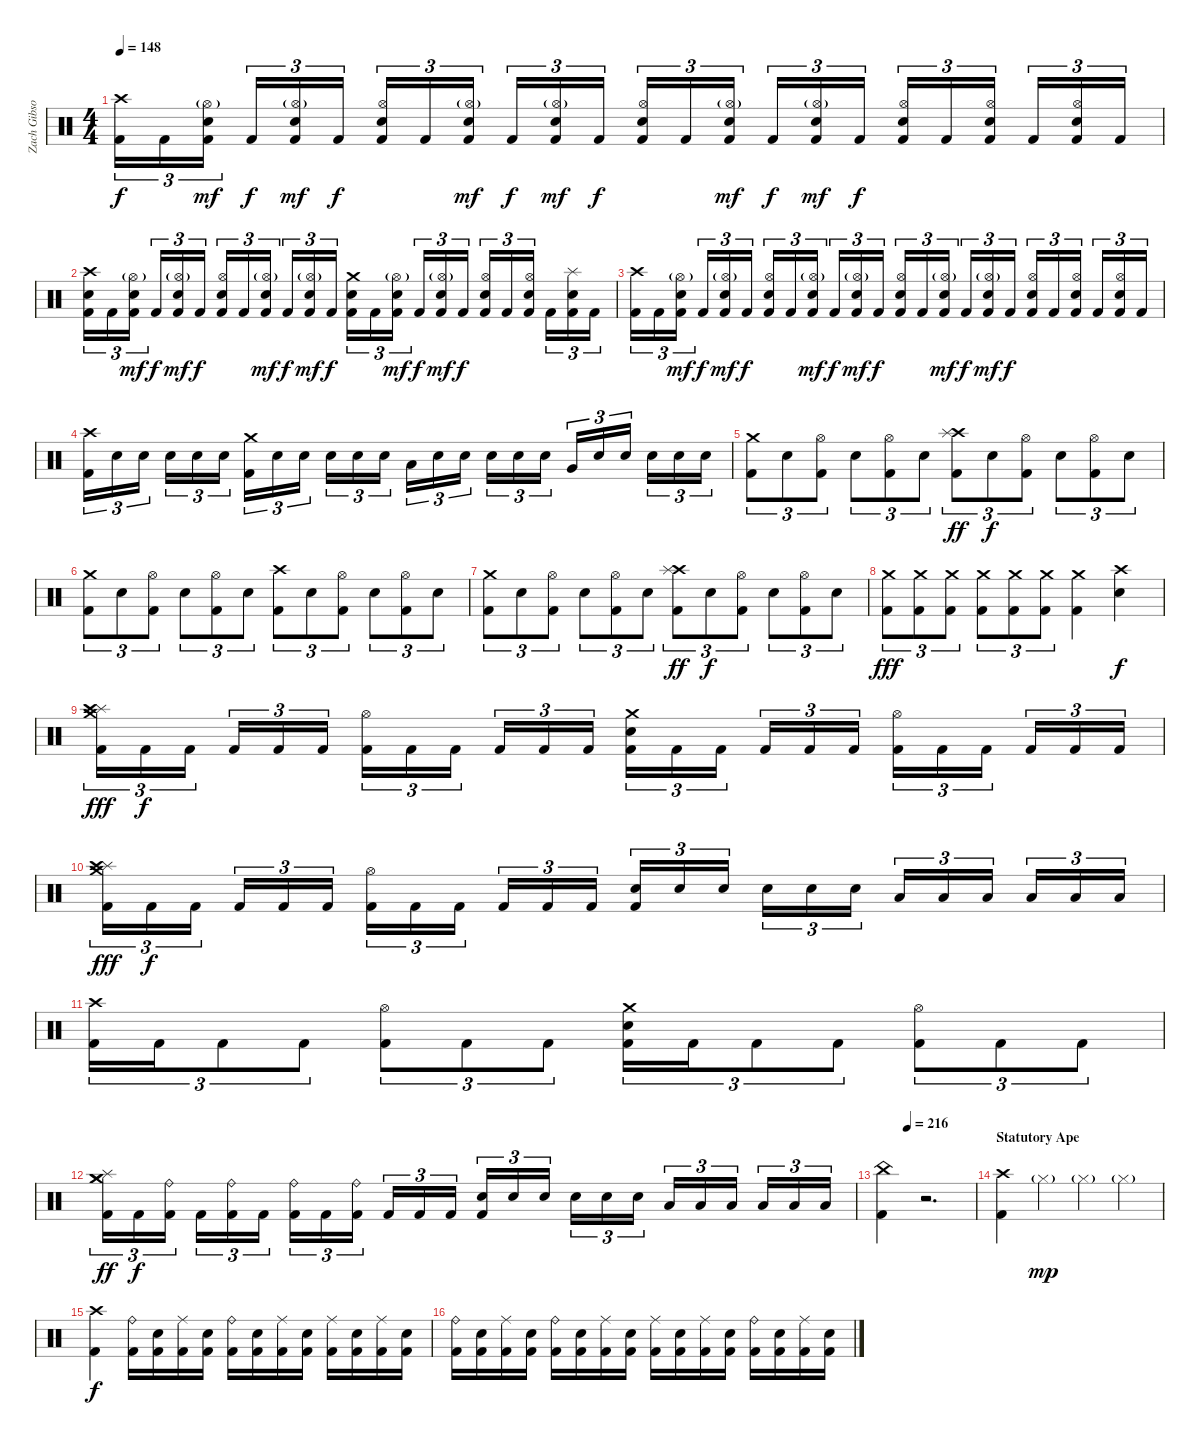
\track ("Zach Gibson (Ex-Drums)" "Zach Gibso") {instrument percussion}
\staff {score}
\articulation defaults
\ts (4 4)
\tempo 148
\clef neutral
\ks c
("Crash high (hit)" "Kick (hit) 2").16{tu (3 2) dy f} "Kick (hit) 2".16{tu (3 2)} ("Hi-Hat (open)"{g} "Snare (hit) 2" "Kick (hit) 2").16{tu (3 2) dy mf} "Kick (hit) 2".16{tu (3 2) dy f} ("Hi-Hat (open)"{g} "Snare (hit) 2" "Kick (hit) 2").16{tu (3 2) dy mf} "Kick (hit) 2".16{tu (3 2) dy f} ("Hi-Hat (open)" "Snare (hit) 2" "Kick (hit) 2").16{tu (3 2)} "Kick (hit) 2".16{tu (3 2)} ("Hi-Hat (open)"{g} "Snare (hit) 2" "Kick (hit) 2").16{tu (3 2) dy mf} "Kick (hit) 2".16{tu (3 2) dy f} ("Hi-Hat (open)"{g} "Snare (hit) 2" "Kick (hit) 2").16{tu (3 2) dy mf} "Kick (hit) 2".16{tu (3 2) dy f} ("Hi-Hat (open)" "Snare (hit) 2" "Kick (hit) 2").16{tu (3 2)} "Kick (hit) 2".16{tu (3 2)} ("Hi-Hat (open)"{g} "Snare (hit) 2" "Kick (hit) 2").16{tu (3 2) dy mf} "Kick (hit) 2".16{tu (3 2) dy f} ("Hi-Hat (open)"{g} "Snare (hit) 2" "Kick (hit) 2").16{tu (3 2) dy mf} "Kick (hit) 2".16{tu (3 2) dy f} ("Hi-Hat (open)" "Snare (hit) 2" "Kick (hit) 2").16{tu (3 2)} "Kick (hit) 2".16{tu (3 2)} ("Hi-Hat (open)" "Snare (hit) 2" "Kick (hit) 2").16{tu (3 2)} "Kick (hit) 2".16{tu (3 2)} ("Hi-Hat (open)" "Snare (hit) 2" "Kick (hit) 2").16{tu (3 2)} "Kick (hit) 2".16{tu (3 2)} |
("Crash high (hit)" "Snare (hit) 2" "Kick (hit) 2").16{tu (3 2)} "Kick (hit) 2".16{tu (3 2)} ("Hi-Hat (open)"{g} "Snare (hit) 2" "Kick (hit) 2").16{tu (3 2) dy mf} "Kick (hit) 2".16{tu (3 2) dy f} ("Hi-Hat (open)"{g} "Snare (hit) 2" "Kick (hit) 2").16{tu (3 2) dy mf} "Kick (hit) 2".16{tu (3 2) dy f} ("Hi-Hat (open)" "Snare (hit) 2" "Kick (hit) 2").16{tu (3 2)} "Kick (hit) 2".16{tu (3 2)} ("Hi-Hat (open)"{g} "Snare (hit) 2" "Kick (hit) 2").16{tu (3 2) dy mf} "Kick (hit) 2".16{tu (3 2) dy f} ("Hi-Hat (open)"{g} "Snare (hit) 2" "Kick (hit) 2").16{tu (3 2) dy mf} "Kick (hit) 2".16{tu (3 2) dy f} ("Crash medium (hit)" "Snare (hit) 2" "Kick (hit) 2").16{tu (3 2)} "Kick (hit) 2".16{tu (3 2)} ("Hi-Hat (open)"{g} "Snare (hit) 2" "Kick (hit) 2").16{tu (3 2) dy mf} "Kick (hit) 2".16{tu (3 2) dy f} ("Hi-Hat (open)"{g} "Snare (hit) 2" "Kick (hit) 2").16{tu (3 2) dy mf} "Kick (hit) 2".16{tu (3 2) dy f} ("Hi-Hat (open)" "Snare (hit) 2" "Kick (hit) 2").16{tu (3 2)} "Kick (hit) 2".16{tu (3 2)} ("Hi-Hat (open)" "Snare (hit) 2" "Kick (hit) 2").16{tu (3 2)} "Kick (hit) 2".16{tu (3 2)} ("Splash (hit)" "Snare (hit) 2" "Kick (hit) 2").16{tu (3 2)} "Kick (hit) 2".16{tu (3 2)} |
("Crash high (hit)" "Kick (hit) 2").16{tu (3 2)} "Kick (hit) 2".16{tu (3 2)} ("Hi-Hat (open)"{g} "Snare (hit) 2" "Kick (hit) 2").16{tu (3 2) dy mf} "Kick (hit) 2".16{tu (3 2) dy f} ("Hi-Hat (open)"{g} "Snare (hit) 2" "Kick (hit) 2").16{tu (3 2) dy mf} "Kick (hit) 2".16{tu (3 2) dy f} ("Hi-Hat (open)" "Snare (hit) 2" "Kick (hit) 2").16{tu (3 2)} "Kick (hit) 2".16{tu (3 2)} ("Hi-Hat (open)"{g} "Snare (hit) 2" "Kick (hit) 2").16{tu (3 2) dy mf} "Kick (hit) 2".16{tu (3 2) dy f} ("Hi-Hat (open)"{g} "Snare (hit) 2" "Kick (hit) 2").16{tu (3 2) dy mf} "Kick (hit) 2".16{tu (3 2) dy f} ("Hi-Hat (open)" "Snare (hit) 2" "Kick (hit) 2").16{tu (3 2)} "Kick (hit) 2".16{tu (3 2)} ("Hi-Hat (open)"{g} "Snare (hit) 2" "Kick (hit) 2").16{tu (3 2) dy mf} "Kick (hit) 2".16{tu (3 2) dy f} ("Hi-Hat (open)"{g} "Snare (hit) 2" "Kick (hit) 2").16{tu (3 2) dy mf} "Kick (hit) 2".16{tu (3 2) dy f} ("Hi-Hat (open)" "Snare (hit) 2" "Kick (hit) 2").16{tu (3 2)} "Kick (hit) 2".16{tu (3 2)} ("Hi-Hat (open)" "Snare (hit) 2" "Kick (hit) 2").16{tu (3 2)} "Kick (hit) 2".16{tu (3 2)} ("Hi-Hat (open)" "Snare (hit) 2" "Kick (hit) 2").16{tu (3 2)} "Kick (hit) 2".16{tu (3 2)} |
("Crash high (hit)" "Kick (hit) 2").16{tu (3 2)} "Snare (hit) 2".16{tu (3 2)} "Snare (hit) 2".16{tu (3 2)} "Snare (hit) 2".16{tu (3 2)} "Snare (hit) 2".16{tu (3 2)} "Snare (hit) 2".16{tu (3 2)} ("Crash medium (hit)" "Kick (hit) 2").16{tu (3 2)} "Snare (hit) 2".16{tu (3 2)} "Snare (hit) 2".16{tu (3 2)} "Snare (hit) 2".16{tu (3 2)} "Snare (hit) 2".16{tu (3 2)} "Snare (hit) 2".16{tu (3 2)} "Low Tom (hit)".16{tu (3 2)} "Snare (hit) 2".16{tu (3 2)} "Snare (hit) 2".16{tu (3 2)} "Snare (hit) 2".16{tu (3 2)} "Snare (hit) 2".16{tu (3 2)} "Snare (hit) 2".16{tu (3 2)} "Very Low Tom (hit)".16{tu (3 2)} "Snare (hit) 2".16{tu (3 2)} "Snare (hit) 2".16{tu (3 2)} "Snare (hit) 2".16{tu (3 2)} "Snare (hit) 2".16{tu (3 2)} "Snare (hit) 2".16{tu (3 2)} |
("Crash medium (hit)" "Kick (hit) 2").8{tu (3 2)} "Snare (hit) 2".8{tu (3 2)} ("Hi-Hat (open)" "Kick (hit) 2").8{tu (3 2)} "Snare (hit) 2".8{tu (3 2)} ("Hi-Hat (open)" "Kick (hit) 2").8{tu (3 2)} "Snare (hit) 2".8{tu (3 2)} ("Crash high (hit)" "Splash (hit)" "Kick (hit) 2").8{tu (3 2) dy ff} "Snare (hit) 2".8{tu (3 2) dy f} ("Hi-Hat (open)" "Kick (hit) 2").8{tu (3 2)} "Snare (hit) 2".8{tu (3 2)} ("Hi-Hat (open)" "Kick (hit) 2").8{tu (3 2)} "Snare (hit) 2".8{tu (3 2)} |
("Crash medium (hit)" "Kick (hit) 2").8{tu (3 2)} "Snare (hit) 2".8{tu (3 2)} ("Hi-Hat (open)" "Kick (hit) 2").8{tu (3 2)} "Snare (hit) 2".8{tu (3 2)} ("Hi-Hat (open)" "Kick (hit) 2").8{tu (3 2)} "Snare (hit) 2".8{tu (3 2)} ("Crash high (hit)" "Kick (hit) 2").8{tu (3 2)} "Snare (hit) 2".8{tu (3 2)} ("Hi-Hat (open)" "Kick (hit) 2").8{tu (3 2)} "Snare (hit) 2".8{tu (3 2)} ("Hi-Hat (open)" "Kick (hit) 2").8{tu (3 2)} "Snare (hit) 2".8{tu (3 2)} |
("Crash medium (hit)" "Kick (hit) 2").8{tu (3 2)} "Snare (hit) 2".8{tu (3 2)} ("Hi-Hat (open)" "Kick (hit) 2").8{tu (3 2)} "Snare (hit) 2".8{tu (3 2)} ("Hi-Hat (open)" "Kick (hit) 2").8{tu (3 2)} "Snare (hit) 2".8{tu (3 2)} ("Crash high (hit)" "Splash (hit)" "Kick (hit) 2").8{tu (3 2) dy ff} "Snare (hit) 2".8{tu (3 2) dy f} ("Hi-Hat (open)" "Kick (hit) 2").8{tu (3 2)} "Snare (hit) 2".8{tu (3 2)} ("Hi-Hat (open)" "Kick (hit) 2").8{tu (3 2)} "Snare (hit) 2".8{tu (3 2)} |
("Crash medium (hit)" "Kick (hit) 2").8{tu (3 2) dy fff} ("Crash medium (hit)" "Kick (hit) 2").8{tu (3 2)} ("Crash medium (hit)" "Kick (hit) 2").8{tu (3 2)} ("Crash medium (hit)" "Kick (hit) 2").8{tu (3 2)} ("Crash medium (hit)" "Kick (hit) 2").8{tu (3 2)} ("Crash medium (hit)" "Kick (hit) 2").8{tu (3 2)} ("Crash medium (hit)" "Kick (hit) 2").4 ("Crash high (hit)" "Snare (hit) 2").4{dy f} |
("Crash medium (hit)" "Splash (hit)" "Crash high (hit)" "Kick (hit) 2").16{tu (3 2) dy fff} "Kick (hit) 2".16{tu (3 2) dy f} "Kick (hit) 2".16{tu (3 2)} "Kick (hit) 2".16{tu (3 2)} "Kick (hit) 2".16{tu (3 2)} "Kick (hit) 2".16{tu (3 2)} ("Hi-Hat (open)" "Kick (hit) 2").16{tu (3 2)} "Kick (hit) 2".16{tu (3 2)} "Kick (hit) 2".16{tu (3 2)} "Kick (hit) 2".16{tu (3 2)} "Kick (hit) 2".16{tu (3 2)} "Kick (hit) 2".16{tu (3 2)} ("Crash medium (hit)" "Snare (hit) 2" "Kick (hit) 2").16{tu (3 2)} "Kick (hit) 2".16{tu (3 2)} "Kick (hit) 2".16{tu (3 2)} "Kick (hit) 2".16{tu (3 2)} "Kick (hit) 2".16{tu (3 2)} "Kick (hit) 2".16{tu (3 2)} ("Hi-Hat (open)" "Kick (hit) 2").16{tu (3 2)} "Kick (hit) 2".16{tu (3 2)} "Kick (hit) 2".16{tu (3 2)} "Kick (hit) 2".16{tu (3 2)} "Kick (hit) 2".16{tu (3 2)} "Kick (hit) 2".16{tu (3 2)} |
("Crash medium (hit)" "Splash (hit)" "Crash high (hit)" "Kick (hit) 2").16{tu (3 2) dy fff} "Kick (hit) 2".16{tu (3 2) dy f} "Kick (hit) 2".16{tu (3 2)} "Kick (hit) 2".16{tu (3 2)} "Kick (hit) 2".16{tu (3 2)} "Kick (hit) 2".16{tu (3 2)} ("Hi-Hat (open)" "Kick (hit) 2").16{tu (3 2)} "Kick (hit) 2".16{tu (3 2)} "Kick (hit) 2".16{tu (3 2)} "Kick (hit) 2".16{tu (3 2)} "Kick (hit) 2".16{tu (3 2)} "Kick (hit) 2".16{tu (3 2)} ("Snare (hit) 2" "Kick (hit) 2").16{tu (3 2)} "Snare (hit) 2".16{tu (3 2)} "Snare (hit) 2".16{tu (3 2)} "Snare (hit) 2".16{tu (3 2)} "Snare (hit) 2".16{tu (3 2)} "Snare (hit) 2".16{tu (3 2)} "Low Tom (hit)".16{tu (3 2)} "Low Tom (hit)".16{tu (3 2)} "Low Tom (hit)".16{tu (3 2)} "Low Tom (hit)".16{tu (3 2)} "Low Tom (hit)".16{tu (3 2)} "Low Tom (hit)".16{tu (3 2)} |
("Crash high (hit)" "Kick (hit) 2").16{tu (3 2)} "Kick (hit) 2".16{tu (3 2)} "Kick (hit) 2".8{tu (3 2)} "Kick (hit) 2".8{tu (3 2)} ("Hi-Hat (open)" "Kick (hit) 2").8{tu (3 2)} "Kick (hit) 2".8{tu (3 2)} "Kick (hit) 2".8{tu (3 2)} ("Crash medium (hit)" "Snare (hit) 2" "Kick (hit) 2").16{tu (3 2)} "Kick (hit) 2".16{tu (3 2)} "Kick (hit) 2".8{tu (3 2)} "Kick (hit) 2".8{tu (3 2)} ("Hi-Hat (open)" "Kick (hit) 2").8{tu (3 2)} "Kick (hit) 2".8{tu (3 2)} "Kick (hit) 2".8{tu (3 2)} |
("Crash medium (hit)" "Splash (hit)" "Crash medium (hit)" "Kick (hit) 2").16{tu (3 2) dy ff} "Kick (hit) 2".16{tu (3 2) dy f} ("Ride (bell)" "Kick (hit) 2").16{tu (3 2)} "Kick (hit) 2".16{tu (3 2)} ("Ride (bell)" "Kick (hit) 2").16{tu (3 2)} "Kick (hit) 2".16{tu (3 2)} ("Ride (bell)" "Kick (hit) 2").16{tu (3 2)} "Kick (hit) 2".16{tu (3 2)} ("Ride (bell)" "Kick (hit) 2").16{tu (3 2)} "Kick (hit) 2".16{tu (3 2)} "Kick (hit) 2".16{tu (3 2)} "Kick (hit) 2".16{tu (3 2)} ("Snare (hit) 2" "Kick (hit) 2").16{tu (3 2)} "Snare (hit) 2".16{tu (3 2)} "Snare (hit) 2".16{tu (3 2)} "Snare (hit) 2".16{tu (3 2)} "Snare (hit) 2".16{tu (3 2)} "Snare (hit) 2".16{tu (3 2)} "Low Tom (hit)".16{tu (3 2)} "Low Tom (hit)".16{tu (3 2)} "Low Tom (hit)".16{tu (3 2)} "Low Tom (hit)".16{tu (3 2)} "Low Tom (hit)".16{tu (3 2)} "Low Tom (hit)".16{tu (3 2)} |
\tempo (216 0.25)
("China (hit)" "Kick (hit) 2").4 r.2{d} |
\section ("" "Statutory Ape")
("Crash high (hit)" "Kick (hit) 2").4 "Hi-Hat (closed)"{g}.4{dy mp} "Hi-Hat (closed)"{g}.4 "Hi-Hat (closed)"{g}.4 |
("Crash high (hit)" "Kick (hit) 2").4{dy f} ("Ride (bell)" "Kick (hit) 2").16 ("Snare (hit) 2" "Kick (hit) 2").16 ("Ride (middle)" "Kick (hit) 2").16 ("Snare (hit) 2" "Kick (hit) 2").16 ("Ride (bell)" "Kick (hit) 2").16 ("Snare (hit) 2" "Kick (hit) 2").16 ("Ride (middle)" "Kick (hit) 2").16 ("Snare (hit) 2" "Kick (hit) 2").16 ("Ride (middle)" "Kick (hit) 2").16 ("Snare (hit) 2" "Kick (hit) 2").16 ("Ride (middle)" "Kick (hit) 2").16 ("Snare (hit) 2" "Kick (hit) 2").16 |
("Ride (bell)" "Kick (hit) 2").16 ("Snare (hit) 2" "Kick (hit) 2").16 ("Ride (middle)" "Kick (hit) 2").16 ("Snare (hit) 2" "Kick (hit) 2").16 ("Ride (bell)" "Kick (hit) 2").16 ("Snare (hit) 2" "Kick (hit) 2").16 ("Ride (middle)" "Kick (hit) 2").16 ("Snare (hit) 2" "Kick (hit) 2").16 ("Ride (middle)" "Kick (hit) 2").16 ("Snare (hit) 2" "Kick (hit) 2").16 ("Ride (middle)" "Kick (hit) 2").16 ("Snare (hit) 2" "Kick (hit) 2").16 ("Ride (bell)" "Kick (hit) 2").16 ("Snare (hit) 2" "Kick (hit) 2").16 ("Ride (middle)" "Kick (hit) 2").16 ("Snare (hit) 2" "Kick (hit) 2").16
